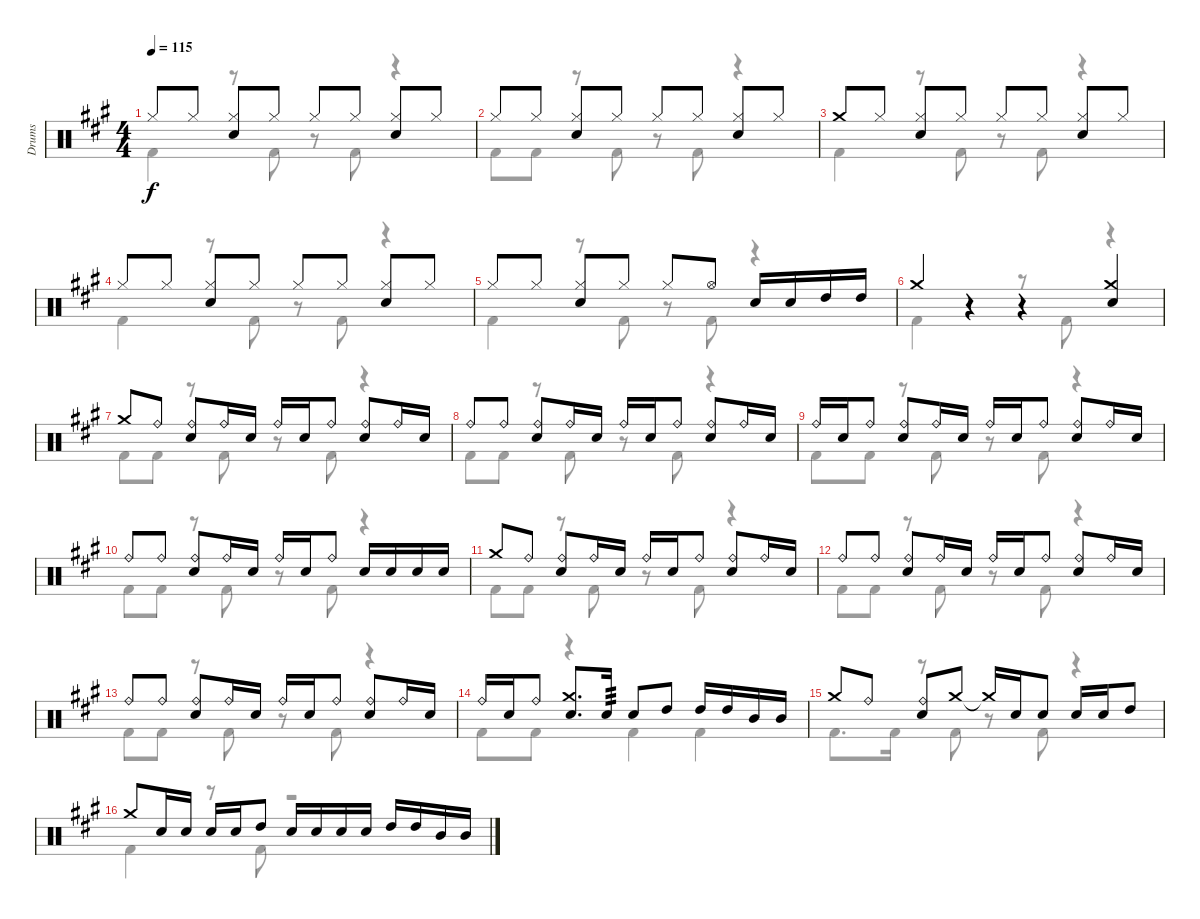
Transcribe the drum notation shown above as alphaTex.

\track ("Drums" "Drums") {instrument percussion}
\staff {score}
\articulation defaults
\voice
\ts (4 4)
\tempo 115
\clef neutral
\ks a "Hi-Hat (closed)".8{dy f} "Hi-Hat (closed)".8
("Hi-Hat (closed)" "Electric Snare (hit)").8 "Hi-Hat (closed)".8 "Hi-Hat (closed)".8 "Hi-Hat (closed)".8 ("Hi-Hat (closed)" "Electric Snare (hit)").8 "Hi-Hat (closed)".8 |
"Hi-Hat (closed)".8 "Hi-Hat (closed)".8 ("Hi-Hat (closed)" "Electric Snare (hit)").8 "Hi-Hat (closed)".8 "Hi-Hat (closed)".8 "Hi-Hat (closed)".8 ("Hi-Hat (closed)" "Electric Snare (hit)").8 "Hi-Hat (closed)".8 |
"Crash medium (hit)".8 "Hi-Hat (closed)".8 ("Hi-Hat (closed)" "Electric Snare (hit)").8 "Hi-Hat (closed)".8 "Hi-Hat (closed)".8 "Hi-Hat (closed)".8 ("Hi-Hat (closed)" "Electric Snare (hit)").8 "Hi-Hat (closed)".8 |
"Hi-Hat (closed)".8 "Hi-Hat (closed)".8 ("Hi-Hat (closed)" "Electric Snare (hit)").8 "Hi-Hat (closed)".8 "Hi-Hat (closed)".8 "Hi-Hat (closed)".8 ("Hi-Hat (closed)" "Electric Snare (hit)").8 "Hi-Hat (closed)".8 |
"Hi-Hat (closed)".8 "Hi-Hat (closed)".8 ("Hi-Hat (closed)" "Electric Snare (hit)").8 "Hi-Hat (closed)".8 "Hi-Hat (closed)".8 "Hi-Hat (open)".8 "Electric Snare (hit)".16 "Electric Snare (hit)".16 "High Tom (hit)".16 "High Tom (hit)".16 |
"Crash medium (hit)".4 r.4 r.4 ("Electric Snare (hit)" "Crash medium (hit)").4 |
"Crash medium (hit)".8 "Ride (bell)".8 ("Ride (bell)" "Electric Snare (hit)").8 "Ride (bell)".16 "Electric Snare (hit)".16 "Ride (bell)".16 "Electric Snare (hit)".16 "Ride (bell)".8 ("Ride (bell)" "Electric Snare (hit)").8 "Ride (bell)".16 "Electric Snare (hit)".16 |
"Ride (bell)".8 "Ride (bell)".8 ("Ride (bell)" "Electric Snare (hit)").8 "Ride (bell)".16 "Electric Snare (hit)".16 "Ride (bell)".16 "Electric Snare (hit)".16 "Ride (bell)".8 ("Ride (bell)" "Electric Snare (hit)").8 "Ride (bell)".16 "Electric Snare (hit)".16 |
"Ride (bell)".16 "Electric Snare (hit)".16 "Ride (bell)".8 ("Ride (bell)" "Electric Snare (hit)").8 "Ride (bell)".16 "Electric Snare (hit)".16 "Ride (bell)".16 "Electric Snare (hit)".16 "Ride (bell)".8 ("Ride (bell)" "Electric Snare (hit)").8 "Ride (bell)".16 "Electric Snare (hit)".16 |
"Ride (bell)".8 "Ride (bell)".8 ("Ride (bell)" "Electric Snare (hit)").8 "Ride (bell)".16 "Electric Snare (hit)".16 "Ride (bell)".16 "Electric Snare (hit)".16 "Ride (bell)".8 "Electric Snare (hit)".16 "Electric Snare (hit)".16 "Electric Snare (hit)".16 "Electric Snare (hit)".16 |
"Crash medium (hit)".8 "Ride (bell)".8 ("Ride (bell)" "Electric Snare (hit)").8 "Ride (bell)".16 "Electric Snare (hit)".16 "Ride (bell)".16 "Electric Snare (hit)".16 "Ride (bell)".8 ("Ride (bell)" "Electric Snare (hit)").8 "Ride (bell)".16 "Electric Snare (hit)".16 |
"Ride (bell)".8 "Ride (bell)".8 ("Ride (bell)" "Electric Snare (hit)").8 "Ride (bell)".16 "Electric Snare (hit)".16 "Ride (bell)".16 "Electric Snare (hit)".16 "Ride (bell)".8 ("Ride (bell)" "Electric Snare (hit)").8 "Ride (bell)".16 "Electric Snare (hit)".16 |
"Ride (bell)".8 "Ride (bell)".8 ("Ride (bell)" "Electric Snare (hit)").8 "Ride (bell)".16 "Electric Snare (hit)".16 "Ride (bell)".16 "Electric Snare (hit)".16 "Ride (bell)".8 ("Ride (bell)" "Electric Snare (hit)").8 "Ride (bell)".16 "Electric Snare (hit)".16 |
"Ride (bell)".16 "Electric Snare (hit)".16 "Ride (bell)".8 ("Crash medium (hit)" "Electric Snare (hit)").8{d} "Electric Snare (hit)".16{tp 3} "Electric Snare (hit)".8 "High Tom (hit)".8 "High Tom (hit)".16 "High Tom (hit)".16 "Mid Tom (hit)".16 "Mid Tom (hit)".16 |
"Crash medium (hit)".8 "Ride (bell)".8 ("Ride (bell)" "Electric Snare (hit)").8 "Crash medium (hit)".8 "Crash medium (hit)"{t}.16 "Electric Snare (hit)".16 "Electric Snare (hit)".8 "Electric Snare (hit)".16 "Electric Snare (hit)".16 "High Tom (hit)".8 |
"Crash medium (hit)".8 "Electric Snare (hit)".16 "Electric Snare (hit)".16 "Electric Snare (hit)".16 "Electric Snare (hit)".16 "High Tom (hit)".8 "Electric Snare (hit)".16 "Electric Snare (hit)".16 "Electric Snare (hit)".16 "Electric Snare (hit)".16 "High Tom (hit)".16 "High Tom (hit)".16 "Mid Tom (hit)".16 "Mid Tom (hit)".16
\voice
\clef neutral
\ottava regular
\simile none
\ks a "Kick (hit) 2".4{dy f}
r.8 "Kick (hit) 2".8 r.8 "Kick (hit) 2".8 r.4 |
"Kick (hit) 2".8 "Kick (hit) 2".8 r.8 "Kick (hit) 2".8 r.8 "Kick (hit) 2".8 r.4 |
"Kick (hit) 2".4 r.8 "Kick (hit) 2".8 r.8 "Kick (hit) 2".8 r.4 |
"Kick (hit) 2".4 r.8 "Kick (hit) 2".8 r.8 "Kick (hit) 2".8 r.4 |
"Kick (hit) 2".4 r.8 "Kick (hit) 2".8 r.8 "Kick (hit) 2".8 r.4 |
"Kick (hit) 2".4 r.4 r.8 "Kick (hit) 2".8 r.4 |
"Kick (hit) 2".8 "Kick (hit) 2".8 r.8 "Kick (hit) 2".8 r.8 "Kick (hit) 2".8 r.4 |
"Kick (hit) 2".8 "Kick (hit) 2".8 r.8 "Kick (hit) 2".8 r.8 "Kick (hit) 2".8 r.4 |
"Kick (hit) 2".8 "Kick (hit) 2".8 r.8 "Kick (hit) 2".8 r.8 "Kick (hit) 2".8 r.4 |
"Kick (hit) 2".8 "Kick (hit) 2".8 r.8 "Kick (hit) 2".8 r.8 "Kick (hit) 2".8 r.4 |
"Kick (hit) 2".8 "Kick (hit) 2".8 r.8 "Kick (hit) 2".8 r.8 "Kick (hit) 2".8 r.4 |
"Kick (hit) 2".8 "Kick (hit) 2".8 r.8 "Kick (hit) 2".8 r.8 "Kick (hit) 2".8 r.4 |
"Kick (hit) 2".8 "Kick (hit) 2".8 r.8 "Kick (hit) 2".8 r.8 "Kick (hit) 2".8 r.4 |
"Kick (hit) 2".8 "Kick (hit) 2".8 r.4 "Kick (hit) 2".4 "Kick (hit) 2".4 |
"Kick (hit) 2".8{d} "Kick (hit) 2".16 r.8 "Kick (hit) 2".8 r.8 "Kick (hit) 2".8 r.4 |
"Kick (hit) 2".4 r.8 "Kick (hit) 2".8 r.2
